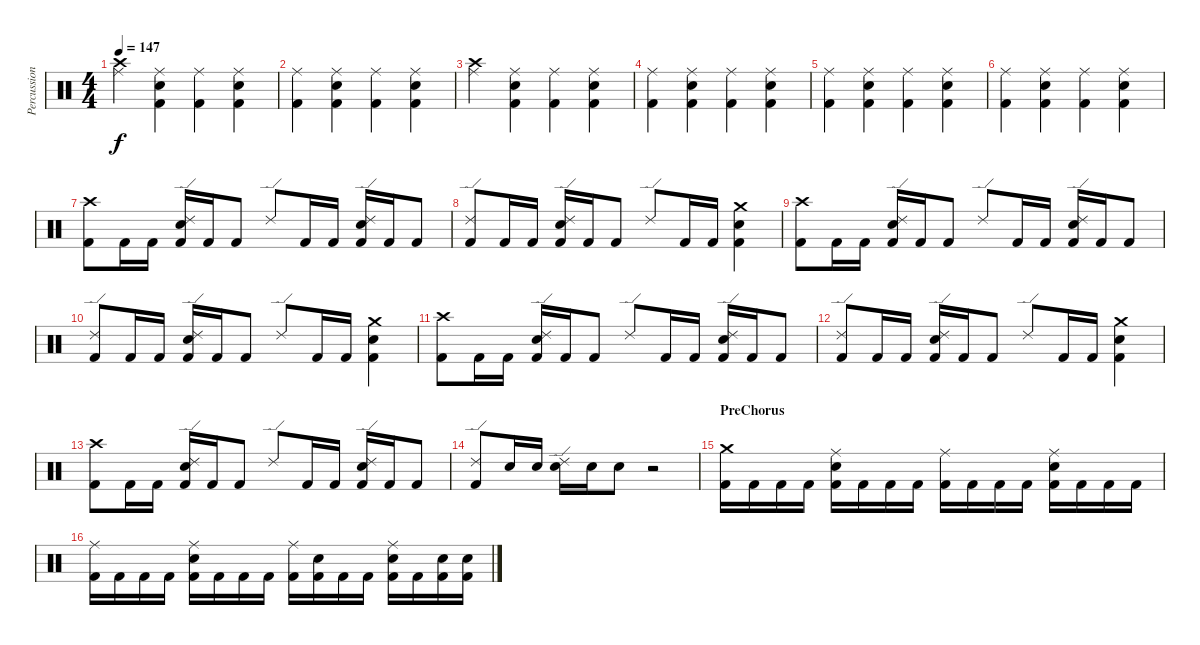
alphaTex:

\track ("Percussion" "Percussion") {instrument percussion}
\staff {score}
\articulation defaults
\ts (4 4)
\tempo 147
\clef neutral
\ks c
("Ride (middle)" "Crash high (hit)").4{dy f} ("Ride (middle)" "Snare (hit) 2" "Kick (hit) 2").4 ("Ride (middle)" "Kick (hit) 2").4 ("Ride (middle)" "Snare (hit) 2" "Kick (hit) 2").4 |
("Ride (middle)" "Kick (hit) 2").4 ("Ride (middle)" "Snare (hit) 2" "Kick (hit) 2").4 ("Ride (middle)" "Kick (hit) 2").4 ("Ride (middle)" "Snare (hit) 2" "Kick (hit) 2").4 |
("Ride (middle)" "Crash high (hit)").4 ("Ride (middle)" "Snare (hit) 2" "Kick (hit) 2").4 ("Ride (middle)" "Kick (hit) 2").4 ("Ride (middle)" "Snare (hit) 2" "Kick (hit) 2").4 |
("Ride (middle)" "Kick (hit) 2").4 ("Ride (middle)" "Snare (hit) 2" "Kick (hit) 2").4 ("Ride (middle)" "Kick (hit) 2").4 ("Ride (middle)" "Snare (hit) 2" "Kick (hit) 2").4 |
("Ride (middle)" "Kick (hit) 2").4 ("Ride (middle)" "Snare (hit) 2" "Kick (hit) 2").4 ("Ride (middle)" "Kick (hit) 2").4 ("Ride (middle)" "Snare (hit) 2" "Kick (hit) 2").4 |
("Ride (middle)" "Kick (hit) 2").4 ("Ride (middle)" "Snare (hit) 2" "Kick (hit) 2").4 ("Ride (middle)" "Kick (hit) 2").4 ("Ride (middle)" "Snare (hit) 2" "Kick (hit) 2").4 |
("Kick (hit) 2" "Crash high (hit)").8 "Kick (hit) 2".16 "Kick (hit) 2".16 ("Snare (hit) 2" "Kick (hit) 2" "Ride (edge) 2").16 "Kick (hit) 2".16 "Kick (hit) 2".8 "Ride (edge) 2".8 "Kick (hit) 2".16 "Kick (hit) 2".16 ("Snare (hit) 2" "Kick (hit) 2" "Ride (edge) 2").16 "Kick (hit) 2".16 "Kick (hit) 2".8 |
("Kick (hit) 2" "Ride (edge) 2").8 "Kick (hit) 2".16 "Kick (hit) 2".16 ("Snare (hit) 2" "Kick (hit) 2" "Ride (edge) 2").16 "Kick (hit) 2".16 "Kick (hit) 2".8 "Ride (edge) 2".8 "Kick (hit) 2".16 "Kick (hit) 2".16 ("Snare (hit) 2" "Kick (hit) 2" "Crash medium (hit)").4 |
("Kick (hit) 2" "Crash high (hit)").8 "Kick (hit) 2".16 "Kick (hit) 2".16 ("Snare (hit) 2" "Kick (hit) 2" "Ride (edge) 2").16 "Kick (hit) 2".16 "Kick (hit) 2".8 "Ride (edge) 2".8 "Kick (hit) 2".16 "Kick (hit) 2".16 ("Snare (hit) 2" "Kick (hit) 2" "Ride (edge) 2").16 "Kick (hit) 2".16 "Kick (hit) 2".8 |
("Kick (hit) 2" "Ride (edge) 2").8 "Kick (hit) 2".16 "Kick (hit) 2".16 ("Snare (hit) 2" "Kick (hit) 2" "Ride (edge) 2").16 "Kick (hit) 2".16 "Kick (hit) 2".8 "Ride (edge) 2".8 "Kick (hit) 2".16 "Kick (hit) 2".16 ("Snare (hit) 2" "Kick (hit) 2" "Crash medium (hit)").4 |
("Kick (hit) 2" "Crash high (hit)").8 "Kick (hit) 2".16 "Kick (hit) 2".16 ("Snare (hit) 2" "Kick (hit) 2" "Ride (edge) 2").16 "Kick (hit) 2".16 "Kick (hit) 2".8 "Ride (edge) 2".8 "Kick (hit) 2".16 "Kick (hit) 2".16 ("Snare (hit) 2" "Kick (hit) 2" "Ride (edge) 2").16 "Kick (hit) 2".16 "Kick (hit) 2".8 |
("Kick (hit) 2" "Ride (edge) 2").8 "Kick (hit) 2".16 "Kick (hit) 2".16 ("Snare (hit) 2" "Kick (hit) 2" "Ride (edge) 2").16 "Kick (hit) 2".16 "Kick (hit) 2".8 "Ride (edge) 2".8 "Kick (hit) 2".16 "Kick (hit) 2".16 ("Snare (hit) 2" "Kick (hit) 2" "Crash medium (hit)").4 |
("Kick (hit) 2" "Crash high (hit)").8 "Kick (hit) 2".16 "Kick (hit) 2".16 ("Snare (hit) 2" "Kick (hit) 2" "Ride (edge) 2").16 "Kick (hit) 2".16 "Kick (hit) 2".8 "Ride (edge) 2".8 "Kick (hit) 2".16 "Kick (hit) 2".16 ("Snare (hit) 2" "Kick (hit) 2" "Ride (edge) 2").16 "Kick (hit) 2".16 "Kick (hit) 2".8 |
("Kick (hit) 2" "Ride (edge) 2").8 "Snare (hit) 2".16 "Snare (hit) 2".16 ("Snare (hit) 2" "Ride (edge) 2").16 "Snare (hit) 2".16 "Snare (hit) 2".8 r.2 |
\section ("" "PreChorus")
("Kick (hit) 2" "Crash medium (hit)").16 "Kick (hit) 2".16 "Kick (hit) 2".16 "Kick (hit) 2".16 ("Kick (hit) 2" "Snare (hit) 2" "Ride (middle)").16 "Kick (hit) 2".16 "Kick (hit) 2".16 "Kick (hit) 2".16 ("Kick (hit) 2" "Ride (middle)").16 "Kick (hit) 2".16 "Kick (hit) 2".16 "Kick (hit) 2".16 ("Kick (hit) 2" "Snare (hit) 2" "Ride (middle)").16 "Kick (hit) 2".16 "Kick (hit) 2".16 "Kick (hit) 2".16 |
("Kick (hit) 2" "Ride (middle)").16 "Kick (hit) 2".16 "Kick (hit) 2".16 "Kick (hit) 2".16 ("Kick (hit) 2" "Snare (hit) 2" "Ride (middle)").16 "Kick (hit) 2".16 "Kick (hit) 2".16 "Kick (hit) 2".16 ("Kick (hit) 2" "Ride (middle)").16 ("Kick (hit) 2" "Snare (hit) 2").16 "Kick (hit) 2".16 "Kick (hit) 2".16 ("Kick (hit) 2" "Snare (hit) 2" "Ride (middle)").16 "Kick (hit) 2".16 ("Kick (hit) 2" "Snare (hit) 2").16 ("Kick (hit) 2" "Snare (hit) 2").16
